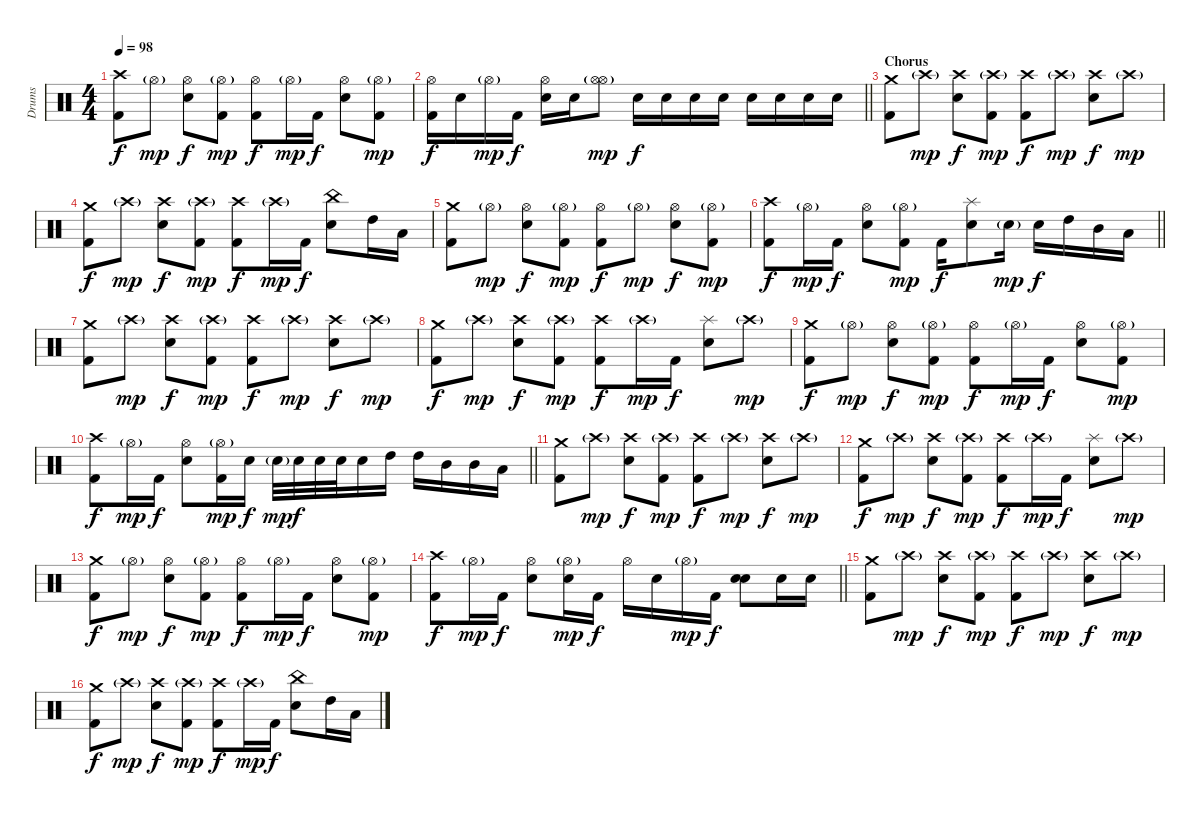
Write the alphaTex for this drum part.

\track ("Drums " "Drums ") {instrument percussion bank 32}
\staff {score}
\articulation defaults
\ts (4 4)
\tempo 98
\clef neutral
\ks c
("Crash high (hit)" "Kick (hit) 2").8{dy f} "Hi-Hat (open)"{g}.8{dy mp} ("Hi-Hat (open)" "Electric Snare (hit)").8{dy f} ("Hi-Hat (open)"{g} "Kick (hit) 2").8{dy mp} ("Hi-Hat (open)" "Kick (hit) 2").8{dy f} "Hi-Hat (open)"{g}.16{dy mp} "Kick (hit) 2".16{dy f} ("Hi-Hat (open)" "Electric Snare (hit)").8 ("Hi-Hat (open)"{g} "Kick (hit) 2").8{dy mp} |
\barLineRight lightlight
("Hi-Hat (open)" "Kick (hit) 2").16{dy f} "Electric Snare (hit)".16 "Hi-Hat (open)"{g}.16{dy mp} "Kick (hit) 2".16{dy f} ("Hi-Hat (open)" "Electric Snare (hit)").16 "Electric Snare (hit)".16 ("Hi-Hat (open)"{g} "Hi-Hat (open)").8{dy mp} "Electric Snare (hit)".16{dy f} "Electric Snare (hit)".16 "Electric Snare (hit)".16 "Electric Snare (hit)".16 "Electric Snare (hit)".16 "Electric Snare (hit)".16 "Electric Snare (hit)".16 "Electric Snare (hit)".16 |
\section ("" "Chorus")
("Crash medium (hit)" "Kick (hit) 2").8 "Crash high (hit)"{g}.8{dy mp} ("Crash high (hit)" "Electric Snare (hit)").8{dy f} ("Crash high (hit)"{g} "Kick (hit) 2").8{dy mp} ("Crash high (hit)" "Kick (hit) 2").8{dy f} "Crash high (hit)"{g}.8{dy mp} ("Crash high (hit)" "Electric Snare (hit)").8{dy f} "Crash high (hit)"{g}.8{dy mp} |
("Crash medium (hit)" "Kick (hit) 2").8{dy f} "Crash high (hit)"{g}.8{dy mp} ("Crash high (hit)" "Electric Snare (hit)").8{dy f} ("Crash high (hit)"{g} "Kick (hit) 2").8{dy mp} ("Crash high (hit)" "Kick (hit) 2").8{dy f} "Crash high (hit)"{g}.16{dy mp} "Kick (hit) 2".16{dy f} ("China (hit)" "Electric Snare (hit)").8 "High Tom (hit)".16 "Low Tom (hit)".16 |
("Crash medium (hit)" "Kick (hit) 2").8 "Hi-Hat (open)"{g}.8{dy mp} ("Hi-Hat (open)" "Electric Snare (hit)").8{dy f} ("Hi-Hat (open)"{g} "Kick (hit) 2").8{dy mp} ("Hi-Hat (open)" "Kick (hit) 2").8{dy f} "Hi-Hat (open)"{g}.8{dy mp} ("Hi-Hat (open)" "Electric Snare (hit)").8{dy f} ("Hi-Hat (open)"{g} "Kick (hit) 2").8{dy mp} |
\barLineRight lightlight
("Crash high (hit)" "Kick (hit) 2").8{dy f} "Hi-Hat (open)"{g}.16{dy mp} "Kick (hit) 2".16{dy f} ("Hi-Hat (open)" "Electric Snare (hit)").8 ("Hi-Hat (open)"{g} "Kick (hit) 2").8{dy mp} "Kick (hit) 2".16{dy f} ("Splash (hit)" "Electric Snare (hit)").8 "Electric Snare (hit)"{g}.16{dy mp} "Electric Snare (hit)".16{dy f} "High Tom (hit)".16 "Mid Tom (hit)".16 "Low Tom (hit)".16 |
("Crash medium (hit)" "Kick (hit) 2").8 "Crash high (hit)"{g}.8{dy mp} ("Crash high (hit)" "Electric Snare (hit)").8{dy f} ("Crash high (hit)"{g} "Kick (hit) 2").8{dy mp} ("Crash high (hit)" "Kick (hit) 2").8{dy f} "Crash high (hit)"{g}.8{dy mp} ("Crash high (hit)" "Electric Snare (hit)").8{dy f} "Crash high (hit)"{g}.8{dy mp} |
("Crash medium (hit)" "Kick (hit) 2").8{dy f} "Crash high (hit)"{g}.8{dy mp} ("Crash high (hit)" "Electric Snare (hit)").8{dy f} ("Crash high (hit)"{g} "Kick (hit) 2").8{dy mp} ("Crash high (hit)" "Kick (hit) 2").8{dy f} "Crash high (hit)"{g}.16{dy mp} "Kick (hit) 2".16{dy f} ("Splash (hit)" "Electric Snare (hit)").8 "Crash high (hit)"{g}.8{dy mp} |
("Crash medium (hit)" "Kick (hit) 2").8{dy f} "Hi-Hat (open)"{g}.8{dy mp} ("Hi-Hat (open)" "Electric Snare (hit)").8{dy f} ("Hi-Hat (open)"{g} "Kick (hit) 2").8{dy mp} ("Hi-Hat (open)" "Kick (hit) 2").8{dy f} "Hi-Hat (open)"{g}.16{dy mp} "Kick (hit) 2".16{dy f} ("Hi-Hat (open)" "Electric Snare (hit)").8 ("Hi-Hat (open)"{g} "Kick (hit) 2").8{dy mp} |
\barLineRight lightlight
("Crash high (hit)" "Kick (hit) 2").8{dy f} "Hi-Hat (open)"{g}.16{dy mp} "Kick (hit) 2".16{dy f} ("Hi-Hat (open)" "Electric Snare (hit)").8 ("Hi-Hat (open)"{g} "Kick (hit) 2").16{dy mp} "Electric Snare (hit)".16{dy f} "Electric Snare (hit)"{g}.32{dy mp} "Electric Snare (hit)".32{dy f} "Electric Snare (hit)".32 "Electric Snare (hit)".32 "Electric Snare (hit)".16 "High Tom (hit)".16 "High Tom (hit)".16 "Mid Tom (hit)".16 "Mid Tom (hit)".16 "Low Tom (hit)".16 |
("Crash medium (hit)" "Kick (hit) 2").8 "Crash high (hit)"{g}.8{dy mp} ("Crash high (hit)" "Electric Snare (hit)").8{dy f} ("Crash high (hit)"{g} "Kick (hit) 2").8{dy mp} ("Crash high (hit)" "Kick (hit) 2").8{dy f} "Crash high (hit)"{g}.8{dy mp} ("Crash high (hit)" "Electric Snare (hit)").8{dy f} "Crash high (hit)"{g}.8{dy mp} |
("Crash medium (hit)" "Kick (hit) 2").8{dy f} "Crash high (hit)"{g}.8{dy mp} ("Crash high (hit)" "Electric Snare (hit)").8{dy f} ("Crash high (hit)"{g} "Kick (hit) 2").8{dy mp} ("Crash high (hit)" "Kick (hit) 2").8{dy f} "Crash high (hit)"{g}.16{dy mp} "Kick (hit) 2".16{dy f} ("Splash (hit)" "Electric Snare (hit)").8 "Crash high (hit)"{g}.8{dy mp} |
("Crash medium (hit)" "Kick (hit) 2").8{dy f} "Hi-Hat (open)"{g}.8{dy mp} ("Hi-Hat (open)" "Electric Snare (hit)").8{dy f} ("Hi-Hat (open)"{g} "Kick (hit) 2").8{dy mp} ("Hi-Hat (open)" "Kick (hit) 2").8{dy f} "Hi-Hat (open)"{g}.16{dy mp} "Kick (hit) 2".16{dy f} ("Hi-Hat (open)" "Electric Snare (hit)").8 ("Hi-Hat (open)"{g} "Kick (hit) 2").8{dy mp} |
\barLineRight lightlight
("Crash high (hit)" "Kick (hit) 2").8{dy f} "Hi-Hat (open)"{g}.16{dy mp} "Kick (hit) 2".16{dy f} ("Hi-Hat (open)" "Electric Snare (hit)").8 ("Hi-Hat (open)"{g} "Electric Snare (hit)").16{dy mp} "Kick (hit) 2".16{dy f} "Hi-Hat (open)".16 "Electric Snare (hit)".16 "Hi-Hat (open)"{g}.16{dy mp} "Kick (hit) 2".16{dy f} ("Electric Snare (hit)" "Electric Snare (hit)").8{bd 240} "Electric Snare (hit)".16 "Electric Snare (hit)".16 |
("Crash medium (hit)" "Kick (hit) 2").8 "Crash high (hit)"{g}.8{dy mp} ("Crash high (hit)" "Electric Snare (hit)").8{dy f} ("Crash high (hit)"{g} "Kick (hit) 2").8{dy mp} ("Crash high (hit)" "Kick (hit) 2").8{dy f} "Crash high (hit)"{g}.8{dy mp} ("Crash high (hit)" "Electric Snare (hit)").8{dy f} "Crash high (hit)"{g}.8{dy mp} |
("Crash medium (hit)" "Kick (hit) 2").8{dy f} "Crash high (hit)"{g}.8{dy mp} ("Crash high (hit)" "Electric Snare (hit)").8{dy f} ("Crash high (hit)"{g} "Kick (hit) 2").8{dy mp} ("Crash high (hit)" "Kick (hit) 2").8{dy f} "Crash high (hit)"{g}.16{dy mp} "Kick (hit) 2".16{dy f} ("China (hit)" "Electric Snare (hit)").8 "High Tom (hit)".16 "Low Tom (hit)".16
